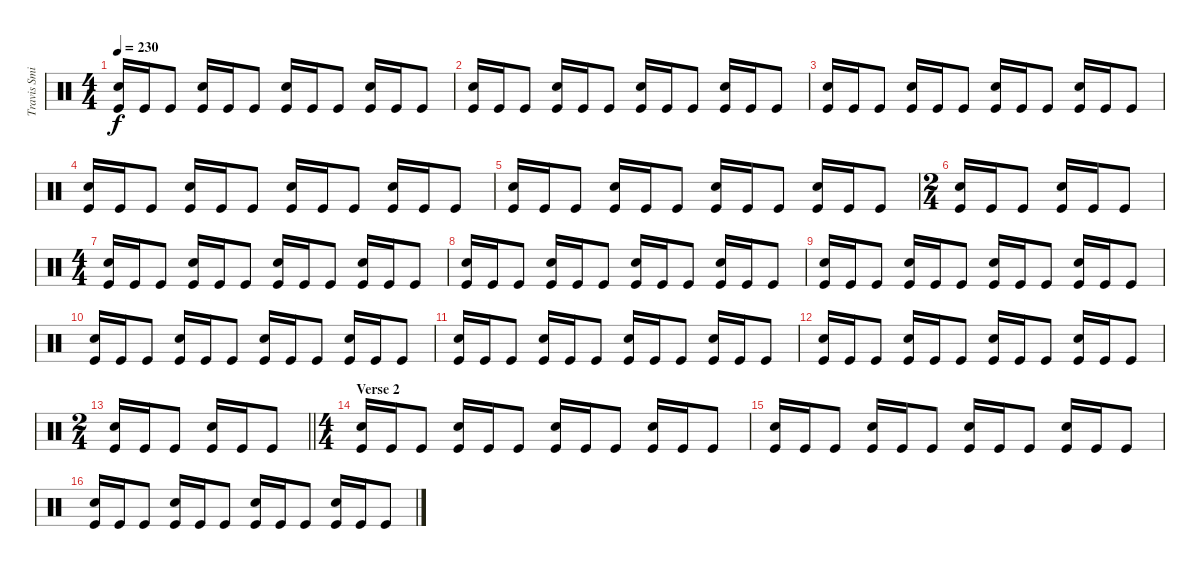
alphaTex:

\track ("Travis Smith" "Travis Smi") {instrument percussion}
\staff {score}
\articulation defaults
\ts (4 4)
\tempo 230
\clef neutral
\ks c
("Snare (hit) 2" "Kick (hit)").16{dy f} "Kick (hit)".16 "Kick (hit)".8 ("Snare (hit) 2" "Kick (hit)").16 "Kick (hit)".16 "Kick (hit)".8 ("Snare (hit) 2" "Kick (hit)").16 "Kick (hit)".16 "Kick (hit)".8 ("Snare (hit) 2" "Kick (hit)").16 "Kick (hit)".16 "Kick (hit)".8 |
("Snare (hit) 2" "Kick (hit)").16 "Kick (hit)".16 "Kick (hit)".8 ("Snare (hit) 2" "Kick (hit)").16 "Kick (hit)".16 "Kick (hit)".8 ("Snare (hit) 2" "Kick (hit)").16 "Kick (hit)".16 "Kick (hit)".8 ("Snare (hit) 2" "Kick (hit)").16 "Kick (hit)".16 "Kick (hit)".8 |
("Snare (hit) 2" "Kick (hit)").16 "Kick (hit)".16 "Kick (hit)".8 ("Snare (hit) 2" "Kick (hit)").16 "Kick (hit)".16 "Kick (hit)".8 ("Snare (hit) 2" "Kick (hit)").16 "Kick (hit)".16 "Kick (hit)".8 ("Snare (hit) 2" "Kick (hit)").16 "Kick (hit)".16 "Kick (hit)".8 |
("Snare (hit) 2" "Kick (hit)").16 "Kick (hit)".16 "Kick (hit)".8 ("Snare (hit) 2" "Kick (hit)").16 "Kick (hit)".16 "Kick (hit)".8 ("Snare (hit) 2" "Kick (hit)").16 "Kick (hit)".16 "Kick (hit)".8 ("Snare (hit) 2" "Kick (hit)").16 "Kick (hit)".16 "Kick (hit)".8 |
("Snare (hit) 2" "Kick (hit)").16 "Kick (hit)".16 "Kick (hit)".8 ("Snare (hit) 2" "Kick (hit)").16 "Kick (hit)".16 "Kick (hit)".8 ("Snare (hit) 2" "Kick (hit)").16 "Kick (hit)".16 "Kick (hit)".8 ("Snare (hit) 2" "Kick (hit)").16 "Kick (hit)".16 "Kick (hit)".8 |
\ts (2 4)
("Snare (hit) 2" "Kick (hit)").16 "Kick (hit)".16 "Kick (hit)".8 ("Snare (hit) 2" "Kick (hit)").16 "Kick (hit)".16 "Kick (hit)".8 |
\ts (4 4)
("Snare (hit) 2" "Kick (hit)").16 "Kick (hit)".16 "Kick (hit)".8 ("Snare (hit) 2" "Kick (hit)").16 "Kick (hit)".16 "Kick (hit)".8 ("Snare (hit) 2" "Kick (hit)").16 "Kick (hit)".16 "Kick (hit)".8 ("Snare (hit) 2" "Kick (hit)").16 "Kick (hit)".16 "Kick (hit)".8 |
("Snare (hit) 2" "Kick (hit)").16 "Kick (hit)".16 "Kick (hit)".8 ("Snare (hit) 2" "Kick (hit)").16 "Kick (hit)".16 "Kick (hit)".8 ("Snare (hit) 2" "Kick (hit)").16 "Kick (hit)".16 "Kick (hit)".8 ("Snare (hit) 2" "Kick (hit)").16 "Kick (hit)".16 "Kick (hit)".8 |
("Snare (hit) 2" "Kick (hit)").16 "Kick (hit)".16 "Kick (hit)".8 ("Snare (hit) 2" "Kick (hit)").16 "Kick (hit)".16 "Kick (hit)".8 ("Snare (hit) 2" "Kick (hit)").16 "Kick (hit)".16 "Kick (hit)".8 ("Snare (hit) 2" "Kick (hit)").16 "Kick (hit)".16 "Kick (hit)".8 |
("Snare (hit) 2" "Kick (hit)").16 "Kick (hit)".16 "Kick (hit)".8 ("Snare (hit) 2" "Kick (hit)").16 "Kick (hit)".16 "Kick (hit)".8 ("Snare (hit) 2" "Kick (hit)").16 "Kick (hit)".16 "Kick (hit)".8 ("Snare (hit) 2" "Kick (hit)").16 "Kick (hit)".16 "Kick (hit)".8 |
("Snare (hit) 2" "Kick (hit)").16 "Kick (hit)".16 "Kick (hit)".8 ("Snare (hit) 2" "Kick (hit)").16 "Kick (hit)".16 "Kick (hit)".8 ("Snare (hit) 2" "Kick (hit)").16 "Kick (hit)".16 "Kick (hit)".8 ("Snare (hit) 2" "Kick (hit)").16 "Kick (hit)".16 "Kick (hit)".8 |
("Snare (hit) 2" "Kick (hit)").16 "Kick (hit)".16 "Kick (hit)".8 ("Snare (hit) 2" "Kick (hit)").16 "Kick (hit)".16 "Kick (hit)".8 ("Snare (hit) 2" "Kick (hit)").16 "Kick (hit)".16 "Kick (hit)".8 ("Snare (hit) 2" "Kick (hit)").16 "Kick (hit)".16 "Kick (hit)".8 |
\ts (2 4)
\barLineRight lightlight
("Snare (hit) 2" "Kick (hit)").16 "Kick (hit)".16 "Kick (hit)".8 ("Snare (hit) 2" "Kick (hit)").16 "Kick (hit)".16 "Kick (hit)".8 |
\ts (4 4)
\section ("" "Verse 2")
("Snare (hit) 2" "Kick (hit)").16 "Kick (hit)".16 "Kick (hit)".8 ("Snare (hit) 2" "Kick (hit)").16 "Kick (hit)".16 "Kick (hit)".8 ("Snare (hit) 2" "Kick (hit)").16 "Kick (hit)".16 "Kick (hit)".8 ("Snare (hit) 2" "Kick (hit)").16 "Kick (hit)".16 "Kick (hit)".8 |
("Snare (hit) 2" "Kick (hit)").16 "Kick (hit)".16 "Kick (hit)".8 ("Snare (hit) 2" "Kick (hit)").16 "Kick (hit)".16 "Kick (hit)".8 ("Snare (hit) 2" "Kick (hit)").16 "Kick (hit)".16 "Kick (hit)".8 ("Snare (hit) 2" "Kick (hit)").16 "Kick (hit)".16 "Kick (hit)".8 |
("Snare (hit) 2" "Kick (hit)").16 "Kick (hit)".16 "Kick (hit)".8 ("Snare (hit) 2" "Kick (hit)").16 "Kick (hit)".16 "Kick (hit)".8 ("Snare (hit) 2" "Kick (hit)").16 "Kick (hit)".16 "Kick (hit)".8 ("Snare (hit) 2" "Kick (hit)").16 "Kick (hit)".16 "Kick (hit)".8
